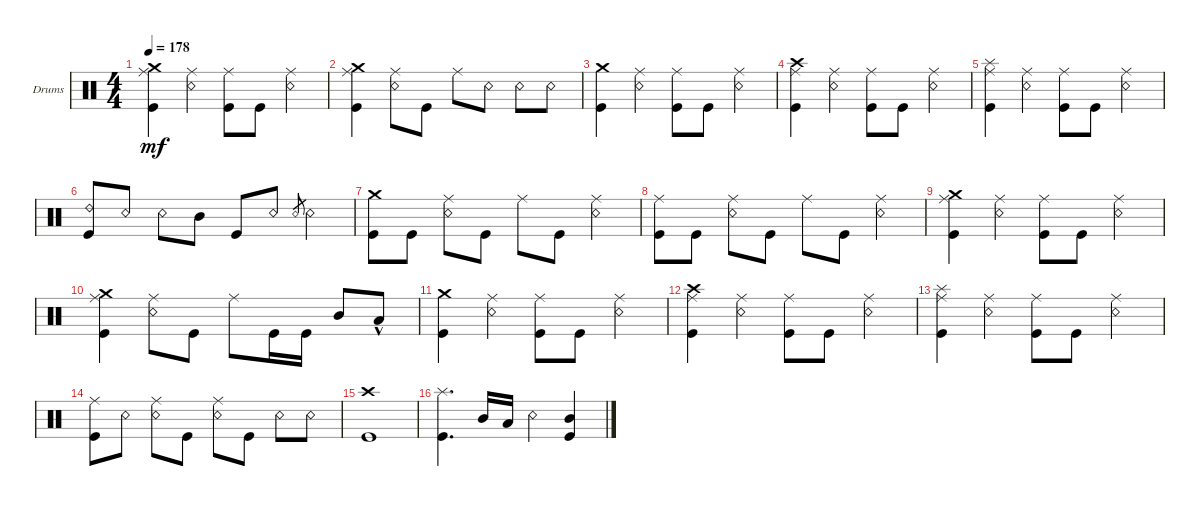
\defaultSystemsLayout 4
\bracketExtendMode groupsimilarinstruments
\firstSystemTrackNameOrientation horizontal
\otherSystemsTrackNameOrientation horizontal
\track ("Drumkit" "Drums") {instrument percussion}
\staff {score}
\articulation defaults
\ts (4 4)
\tempo 178
\clef neutral
\ks c
("Kick (hit)" "Ride (middle)" "Crash medium (hit)").4{dy mf} ("Ride (middle)" "Snare (rim shot)").4 ("Ride (middle)" "Kick (hit)").8 "Kick (hit)".8 ("Snare (rim shot)" "Ride (middle)").4 |
("Kick (hit)" "Ride (middle)" "Crash medium (hit)").4 ("Ride (middle)" "Snare (rim shot)").8 "Kick (hit)".8 "Ride (middle)".8 "Snare (rim shot)".8 "Snare (rim shot)".8 "Snare (rim shot)".8 |
("Kick (hit)" "Crash medium (hit)").4 ("Ride (middle)" "Snare (rim shot)").4 ("Ride (middle)" "Kick (hit)").8 "Kick (hit)".8 ("Snare (rim shot)" "Ride (middle)").4 |
("Kick (hit)" "Ride (middle)" "Crash high (hit)").4 ("Ride (middle)" "Snare (rim shot)").4 ("Ride (middle)" "Kick (hit)").8 "Kick (hit)".8 ("Snare (rim shot)" "Ride (middle)").4 |
("Kick (hit)" "Ride (middle)" "Splash (hit)").4 ("Ride (middle)" "Snare (rim shot)").4 ("Ride (middle)" "Kick (hit)").8 "Kick (hit)".8 ("Snare (rim shot)" "Ride (middle)").4 |
("Kick (hit)" "Ride (bell) 2").8 "Snare (rim shot)".8 "Snare (rim shot)".8 "Mid Tom (hit)".8 "Kick (hit)".8 "Snare (rim shot)".8 "Snare (rim shot)".8{gr} "Snare (rim shot)".4 |
("Kick (hit)" "Crash medium (hit)").8 "Kick (hit)".8 ("Snare (rim shot)" "Ride (middle)").8 "Kick (hit)".8 "Ride (middle)".8 "Kick (hit)".8 ("Snare (rim shot)" "Ride (middle)").4 |
("Kick (hit)" "Ride (middle)").8 "Kick (hit)".8 ("Snare (rim shot)" "Ride (middle)").8 "Kick (hit)".8 "Ride (middle)".8 "Kick (hit)".8 ("Snare (rim shot)" "Ride (middle)").4 |
("Kick (hit)" "Ride (middle)" "Crash medium (hit)").4 ("Ride (middle)" "Snare (rim shot)").4 ("Ride (middle)" "Kick (hit)").8 "Kick (hit)".8 ("Snare (rim shot)" "Ride (middle)").4 |
("Kick (hit)" "Ride (middle)" "Crash medium (hit)").4 ("Ride (middle)" "Snare (rim shot)").8 "Kick (hit)".8 "Ride (middle)".8 "Kick (hit)".16 "Kick (hit)".16 "Mid Tom (hit)".8 "Low Tom (hit)"{hac}.8 |
("Kick (hit)" "Crash medium (hit)").4 ("Ride (middle)" "Snare (rim shot)").4 ("Ride (middle)" "Kick (hit)").8 "Kick (hit)".8 ("Snare (rim shot)" "Ride (middle)").4 |
("Kick (hit)" "Ride (middle)" "Crash high (hit)").4 ("Ride (middle)" "Snare (rim shot)").4 ("Ride (middle)" "Kick (hit)").8 "Kick (hit)".8 ("Snare (rim shot)" "Ride (middle)").4 |
("Kick (hit)" "Ride (middle)" "Splash (hit)").4 ("Ride (middle)" "Snare (rim shot)").4 ("Ride (middle)" "Kick (hit)").8 "Kick (hit)".8 ("Snare (rim shot)" "Ride (middle)").4 |
("Kick (hit)" "Ride (middle)").8 "Snare (rim shot)".8 ("Ride (middle)" "Snare (rim shot)").8 "Kick (hit)".8 ("Snare (rim shot)" "Ride (middle)").8 "Kick (hit)".8 "Snare (rim shot)".8 "Snare (rim shot)".8 |
("Kick (hit)" "Crash high (hit)").1 |
("Splash (hit)" "Kick (hit)").4{d} "Mid Tom (hit)".16 "Low Tom (hit)".16 "Snare (rim shot)".4 ("Kick (hit)" "Mid Tom (hit)").4
